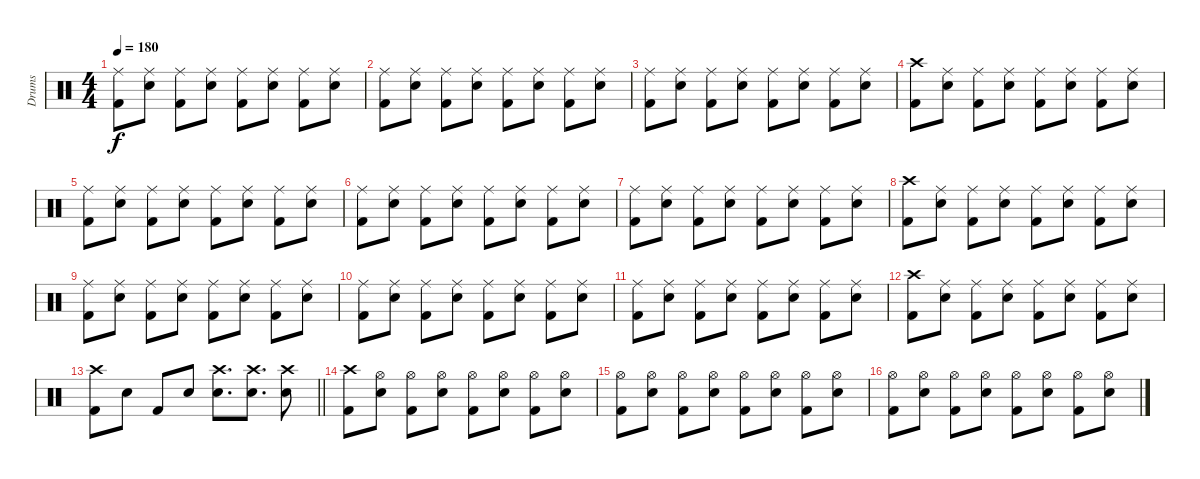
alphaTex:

\track ("Drums" "Drums") {instrument percussion}
\staff {score}
\articulation defaults
\ts (4 4)
\tempo 180
\clef neutral
\ks c
("Ride (middle)" "Kick (hit) 2").8{dy f} ("Ride (middle)" "Snare (hit) 2").8 ("Ride (middle)" "Kick (hit) 2").8 ("Ride (middle)" "Snare (hit) 2").8 ("Ride (middle)" "Kick (hit) 2").8 ("Ride (middle)" "Snare (hit) 2").8 ("Ride (middle)" "Kick (hit) 2").8 ("Ride (middle)" "Snare (hit) 2").8 |
("Ride (middle)" "Kick (hit) 2").8 ("Ride (middle)" "Snare (hit) 2").8 ("Ride (middle)" "Kick (hit) 2").8 ("Ride (middle)" "Snare (hit) 2").8 ("Ride (middle)" "Kick (hit) 2").8 ("Ride (middle)" "Snare (hit) 2").8 ("Ride (middle)" "Kick (hit) 2").8 ("Ride (middle)" "Snare (hit) 2").8 |
("Ride (middle)" "Kick (hit) 2").8 ("Ride (middle)" "Snare (hit) 2").8 ("Ride (middle)" "Kick (hit) 2").8 ("Ride (middle)" "Snare (hit) 2").8 ("Ride (middle)" "Kick (hit) 2").8 ("Ride (middle)" "Snare (hit) 2").8 ("Ride (middle)" "Kick (hit) 2").8 ("Ride (middle)" "Snare (hit) 2").8 |
("Crash high (hit)" "Kick (hit) 2").8 ("Ride (middle)" "Snare (hit) 2").8 ("Ride (middle)" "Kick (hit) 2").8 ("Ride (middle)" "Snare (hit) 2").8 ("Ride (middle)" "Kick (hit) 2").8 ("Ride (middle)" "Snare (hit) 2").8 ("Ride (middle)" "Kick (hit) 2").8 ("Ride (middle)" "Snare (hit) 2").8 |
("Ride (middle)" "Kick (hit) 2").8 ("Ride (middle)" "Snare (hit) 2").8 ("Ride (middle)" "Kick (hit) 2").8 ("Ride (middle)" "Snare (hit) 2").8 ("Ride (middle)" "Kick (hit) 2").8 ("Ride (middle)" "Snare (hit) 2").8 ("Ride (middle)" "Kick (hit) 2").8 ("Ride (middle)" "Snare (hit) 2").8 |
("Ride (middle)" "Kick (hit) 2").8 ("Ride (middle)" "Snare (hit) 2").8 ("Ride (middle)" "Kick (hit) 2").8 ("Ride (middle)" "Snare (hit) 2").8 ("Ride (middle)" "Kick (hit) 2").8 ("Ride (middle)" "Snare (hit) 2").8 ("Ride (middle)" "Kick (hit) 2").8 ("Ride (middle)" "Snare (hit) 2").8 |
("Ride (middle)" "Kick (hit) 2").8 ("Ride (middle)" "Snare (hit) 2").8 ("Ride (middle)" "Kick (hit) 2").8 ("Ride (middle)" "Snare (hit) 2").8 ("Ride (middle)" "Kick (hit) 2").8 ("Ride (middle)" "Snare (hit) 2").8 ("Ride (middle)" "Kick (hit) 2").8 ("Ride (middle)" "Snare (hit) 2").8 |
("Crash high (hit)" "Kick (hit) 2").8 ("Ride (middle)" "Snare (hit) 2").8 ("Ride (middle)" "Kick (hit) 2").8 ("Ride (middle)" "Snare (hit) 2").8 ("Ride (middle)" "Kick (hit) 2").8 ("Ride (middle)" "Snare (hit) 2").8 ("Ride (middle)" "Kick (hit) 2").8 ("Ride (middle)" "Snare (hit) 2").8 |
("Ride (middle)" "Kick (hit) 2").8 ("Ride (middle)" "Snare (hit) 2").8 ("Ride (middle)" "Kick (hit) 2").8 ("Ride (middle)" "Snare (hit) 2").8 ("Ride (middle)" "Kick (hit) 2").8 ("Ride (middle)" "Snare (hit) 2").8 ("Ride (middle)" "Kick (hit) 2").8 ("Ride (middle)" "Snare (hit) 2").8 |
("Ride (middle)" "Kick (hit) 2").8 ("Ride (middle)" "Snare (hit) 2").8 ("Ride (middle)" "Kick (hit) 2").8 ("Ride (middle)" "Snare (hit) 2").8 ("Ride (middle)" "Kick (hit) 2").8 ("Ride (middle)" "Snare (hit) 2").8 ("Ride (middle)" "Kick (hit) 2").8 ("Ride (middle)" "Snare (hit) 2").8 |
("Ride (middle)" "Kick (hit) 2").8 ("Ride (middle)" "Snare (hit) 2").8 ("Ride (middle)" "Kick (hit) 2").8 ("Ride (middle)" "Snare (hit) 2").8 ("Ride (middle)" "Kick (hit) 2").8 ("Ride (middle)" "Snare (hit) 2").8 ("Ride (middle)" "Kick (hit) 2").8 ("Ride (middle)" "Snare (hit) 2").8 |
("Crash high (hit)" "Kick (hit) 2").8 ("Ride (middle)" "Snare (hit) 2").8 ("Ride (middle)" "Kick (hit) 2").8 ("Ride (middle)" "Snare (hit) 2").8 ("Ride (middle)" "Kick (hit) 2").8 ("Ride (middle)" "Snare (hit) 2").8 ("Ride (middle)" "Kick (hit) 2").8 ("Ride (middle)" "Snare (hit) 2").8 |
\barLineRight lightlight
("Crash high (hit)" "Kick (hit) 2").8 "Snare (hit) 2".8 "Kick (hit) 2".8 "Snare (hit) 2".8 ("Crash high (hit)" "Snare (hit) 2").8{d} ("Crash high (hit)" "Snare (hit) 2").8{d} ("Crash high (hit)" "Snare (hit) 2").8 |
("Crash high (hit)" "Kick (hit) 2").8 ("Hi-Hat (open)" "Snare (hit) 2").8 ("Hi-Hat (open)" "Kick (hit) 2").8 ("Hi-Hat (open)" "Snare (hit) 2").8 ("Hi-Hat (open)" "Kick (hit) 2").8 ("Hi-Hat (open)" "Snare (hit) 2").8 ("Hi-Hat (open)" "Kick (hit) 2").8 ("Hi-Hat (open)" "Snare (hit) 2").8 |
("Hi-Hat (open)" "Kick (hit) 2").8 ("Hi-Hat (open)" "Snare (hit) 2").8 ("Hi-Hat (open)" "Kick (hit) 2").8 ("Hi-Hat (open)" "Snare (hit) 2").8 ("Hi-Hat (open)" "Kick (hit) 2").8 ("Hi-Hat (open)" "Snare (hit) 2").8 ("Hi-Hat (open)" "Kick (hit) 2").8 ("Hi-Hat (open)" "Snare (hit) 2").8 |
("Hi-Hat (open)" "Kick (hit) 2").8 ("Hi-Hat (open)" "Snare (hit) 2").8 ("Hi-Hat (open)" "Kick (hit) 2").8 ("Hi-Hat (open)" "Snare (hit) 2").8 ("Hi-Hat (open)" "Kick (hit) 2").8 ("Hi-Hat (open)" "Snare (hit) 2").8 ("Hi-Hat (open)" "Kick (hit) 2").8 ("Hi-Hat (open)" "Snare (hit) 2").8
